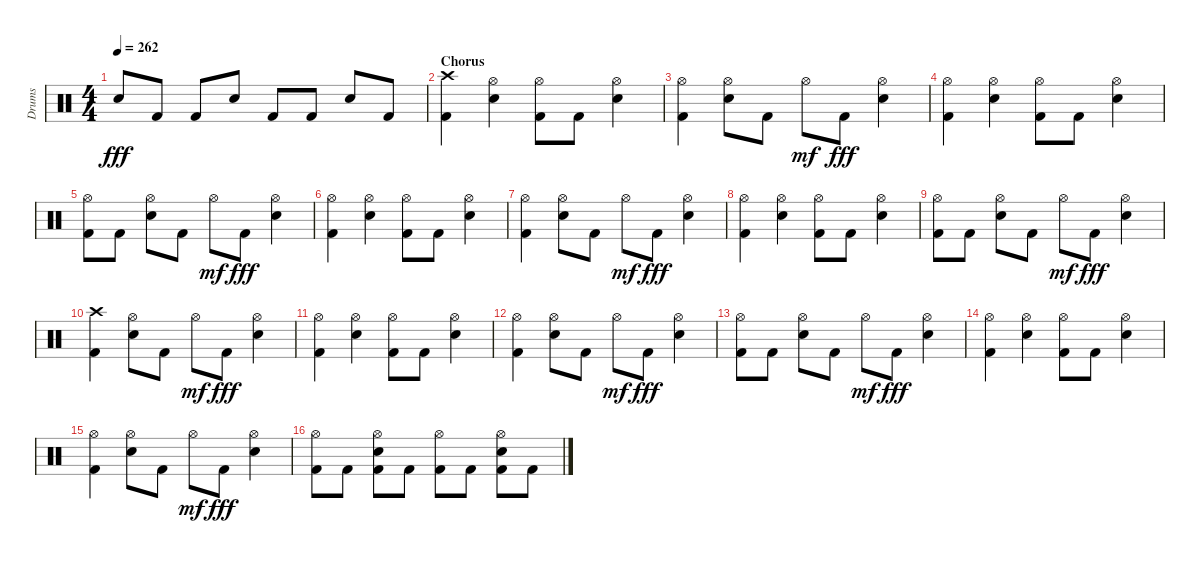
\track ("Drums" "Drums") {instrument percussion}
\staff {score}
\articulation defaults
\ts (4 4)
\tempo 262
\clef neutral
\ks aminor "Snare (hit) 2".8{dy fff} "Kick (hit) 2".8 "Kick (hit) 2".8 "Snare (hit) 2".8 "Kick (hit) 2".8 "Kick (hit) 2".8 "Snare (hit) 2".8 "Kick (hit) 2".8
|
\section ("" "Chorus")
("Kick (hit) 2" "Crash high (hit)").4 ("Snare (hit) 2" "Hi-Hat (open)").4 ("Kick (hit) 2" "Hi-Hat (open)").8 "Kick (hit) 2".8 ("Snare (hit) 2" "Hi-Hat (open)").4 |
("Kick (hit) 2" "Hi-Hat (open)").4 ("Snare (hit) 2" "Hi-Hat (open)").8 "Kick (hit) 2".8 "Hi-Hat (open)".8{dy mf} "Kick (hit) 2".8{dy fff} ("Snare (hit) 2" "Hi-Hat (open)").4 |
("Kick (hit) 2" "Hi-Hat (open)").4 ("Snare (hit) 2" "Hi-Hat (open)").4 ("Kick (hit) 2" "Hi-Hat (open)").8 "Kick (hit) 2".8 ("Snare (hit) 2" "Hi-Hat (open)").4 |
("Kick (hit) 2" "Hi-Hat (open)").8 "Kick (hit) 2".8 ("Snare (hit) 2" "Hi-Hat (open)").8 "Kick (hit) 2".8 "Hi-Hat (open)".8{dy mf} "Kick (hit) 2".8{dy fff} ("Snare (hit) 2" "Hi-Hat (open)").4 |
("Kick (hit) 2" "Hi-Hat (open)").4 ("Snare (hit) 2" "Hi-Hat (open)").4 ("Kick (hit) 2" "Hi-Hat (open)").8 "Kick (hit) 2".8 ("Snare (hit) 2" "Hi-Hat (open)").4 |
("Kick (hit) 2" "Hi-Hat (open)").4 ("Snare (hit) 2" "Hi-Hat (open)").8 "Kick (hit) 2".8 "Hi-Hat (open)".8{dy mf} "Kick (hit) 2".8{dy fff} ("Snare (hit) 2" "Hi-Hat (open)").4 |
("Kick (hit) 2" "Hi-Hat (open)").4 ("Snare (hit) 2" "Hi-Hat (open)").4 ("Kick (hit) 2" "Hi-Hat (open)").8 "Kick (hit) 2".8 ("Snare (hit) 2" "Hi-Hat (open)").4 |
("Kick (hit) 2" "Hi-Hat (open)").8 "Kick (hit) 2".8 ("Snare (hit) 2" "Hi-Hat (open)").8 "Kick (hit) 2".8 "Hi-Hat (open)".8{dy mf} "Kick (hit) 2".8{dy fff} ("Snare (hit) 2" "Hi-Hat (open)").4 |
("Kick (hit) 2" "Crash high (hit)").4 ("Snare (hit) 2" "Hi-Hat (open)").8 "Kick (hit) 2".8 "Hi-Hat (open)".8{dy mf} "Kick (hit) 2".8{dy fff} ("Snare (hit) 2" "Hi-Hat (open)").4 |
("Kick (hit) 2" "Hi-Hat (open)").4 ("Snare (hit) 2" "Hi-Hat (open)").4 ("Kick (hit) 2" "Hi-Hat (open)").8 "Kick (hit) 2".8 ("Snare (hit) 2" "Hi-Hat (open)").4 |
("Kick (hit) 2" "Hi-Hat (open)").4 ("Snare (hit) 2" "Hi-Hat (open)").8 "Kick (hit) 2".8 "Hi-Hat (open)".8{dy mf} "Kick (hit) 2".8{dy fff} ("Snare (hit) 2" "Hi-Hat (open)").4 |
("Kick (hit) 2" "Hi-Hat (open)").8 "Kick (hit) 2".8 ("Snare (hit) 2" "Hi-Hat (open)").8 "Kick (hit) 2".8 "Hi-Hat (open)".8{dy mf} "Kick (hit) 2".8{dy fff} ("Snare (hit) 2" "Hi-Hat (open)").4 |
("Kick (hit) 2" "Hi-Hat (open)").4 ("Snare (hit) 2" "Hi-Hat (open)").4 ("Kick (hit) 2" "Hi-Hat (open)").8 "Kick (hit) 2".8 ("Snare (hit) 2" "Hi-Hat (open)").4 |
("Kick (hit) 2" "Hi-Hat (open)").4 ("Snare (hit) 2" "Hi-Hat (open)").8 "Kick (hit) 2".8 "Hi-Hat (open)".8{dy mf} "Kick (hit) 2".8{dy fff} ("Snare (hit) 2" "Hi-Hat (open)").4 |
("Kick (hit) 2" "Hi-Hat (open)").8 "Kick (hit) 2".8 ("Kick (hit) 2" "Snare (hit) 2" "Hi-Hat (open)").8 "Kick (hit) 2".8 ("Kick (hit) 2" "Hi-Hat (open)").8 "Kick (hit) 2".8 ("Kick (hit) 2" "Snare (hit) 2" "Hi-Hat (open)").8 "Kick (hit) 2".8
